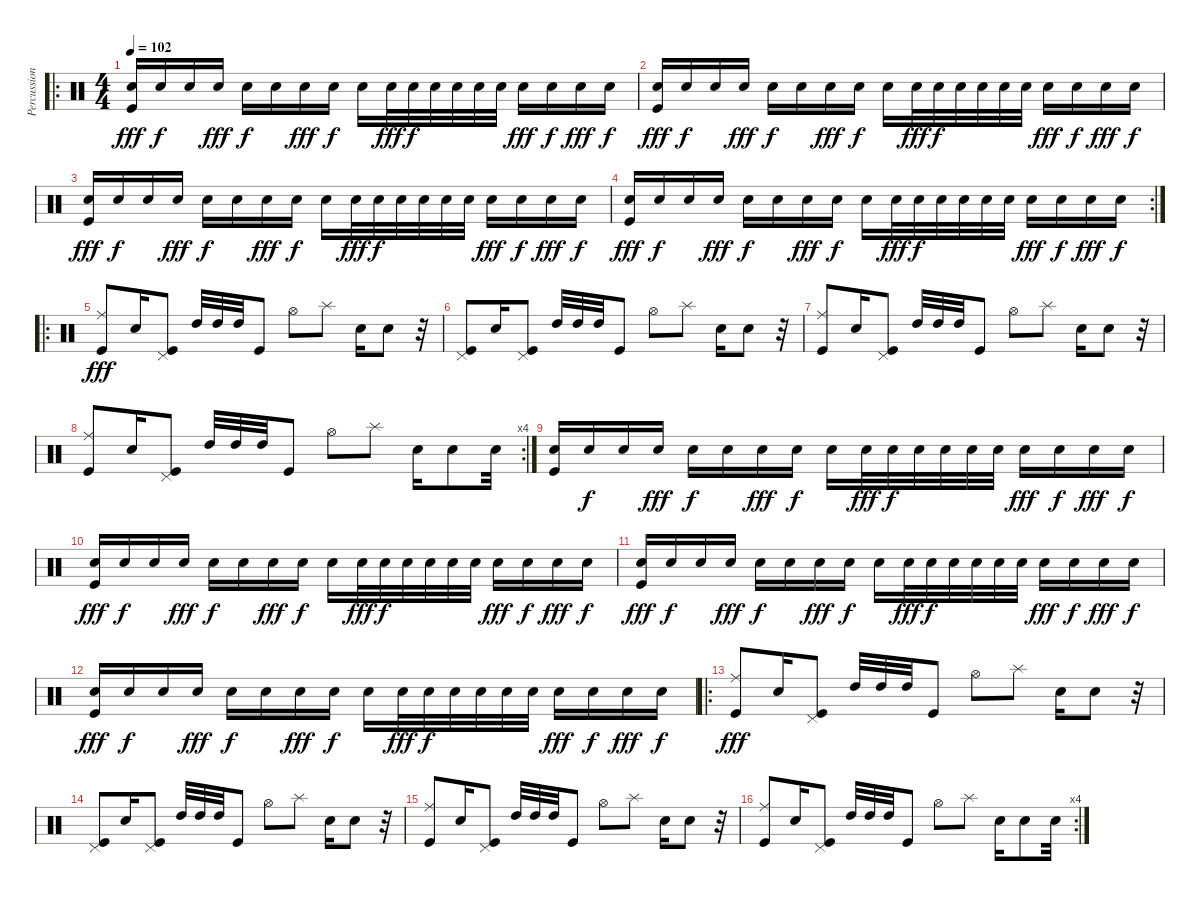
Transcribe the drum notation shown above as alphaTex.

\track ("Percussion" "Percussion") {instrument percussion}
\staff {score}
\articulation defaults
\ro
\ts (4 4)
\tempo 102
\clef neutral
\ks c
("Snare (hit) 2" "Kick (hit)").16{dy fff} "Snare (hit) 2".16{dy f} "Snare (hit) 2".16 "Snare (hit) 2".16{dy fff} "Snare (hit) 2".16{dy f} "Snare (hit) 2".16 "Snare (hit) 2".16{dy fff} "Snare (hit) 2".16{dy f} "Snare (hit) 2".16 "Snare (hit) 2".32{dy fff} "Snare (hit) 2".32{dy f} "Snare (hit) 2".32 "Snare (hit) 2".32 "Snare (hit) 2".32 "Snare (hit) 2".32 "Snare (hit) 2".16{dy fff} "Snare (hit) 2".16{dy f} "Snare (hit) 2".16{dy fff} "Snare (hit) 2".16{dy f} |
("Snare (hit) 2" "Kick (hit)").16{dy fff} "Snare (hit) 2".16{dy f} "Snare (hit) 2".16 "Snare (hit) 2".16{dy fff} "Snare (hit) 2".16{dy f} "Snare (hit) 2".16 "Snare (hit) 2".16{dy fff} "Snare (hit) 2".16{dy f} "Snare (hit) 2".16 "Snare (hit) 2".32{dy fff} "Snare (hit) 2".32{dy f} "Snare (hit) 2".32 "Snare (hit) 2".32 "Snare (hit) 2".32 "Snare (hit) 2".32 "Snare (hit) 2".16{dy fff} "Snare (hit) 2".16{dy f} "Snare (hit) 2".16{dy fff} "Snare (hit) 2".16{dy f} |
("Snare (hit) 2" "Kick (hit)").16{dy fff} "Snare (hit) 2".16{dy f} "Snare (hit) 2".16 "Snare (hit) 2".16{dy fff} "Snare (hit) 2".16{dy f} "Snare (hit) 2".16 "Snare (hit) 2".16{dy fff} "Snare (hit) 2".16{dy f} "Snare (hit) 2".16 "Snare (hit) 2".32{dy fff} "Snare (hit) 2".32{dy f} "Snare (hit) 2".32 "Snare (hit) 2".32 "Snare (hit) 2".32 "Snare (hit) 2".32 "Snare (hit) 2".16{dy fff} "Snare (hit) 2".16{dy f} "Snare (hit) 2".16{dy fff} "Snare (hit) 2".16{dy f} |
\rc 2
("Snare (hit) 2" "Kick (hit)").16{dy fff} "Snare (hit) 2".16{dy f} "Snare (hit) 2".16 "Snare (hit) 2".16{dy fff} "Snare (hit) 2".16{dy f} "Snare (hit) 2".16 "Snare (hit) 2".16{dy fff} "Snare (hit) 2".16{dy f} "Snare (hit) 2".16 "Snare (hit) 2".32{dy fff} "Snare (hit) 2".32{dy f} "Snare (hit) 2".32 "Snare (hit) 2".32 "Snare (hit) 2".32 "Snare (hit) 2".32 "Snare (hit) 2".16{dy fff} "Snare (hit) 2".16{dy f} "Snare (hit) 2".16{dy fff} "Snare (hit) 2".16{dy f} |
\ro
("Ride (middle)" "Kick (hit)").8{dy fff} "Snare (hit) 2".16 ("Pedal Hi-Hat (hit)" "Kick (hit)").8 "High Tom (hit)".32 "High Tom (hit)".32 "High Tom (hit)".32 "Kick (hit)".8 "Hi-Hat (open)".8 "Splash (hit)".8 "Snare (hit) 2".16 "Snare (hit) 2".8 r.32 |
("Pedal Hi-Hat (hit)" "Kick (hit)").8 "Snare (hit) 2".16 ("Pedal Hi-Hat (hit)" "Kick (hit)").8 "High Tom (hit)".32 "High Tom (hit)".32 "High Tom (hit)".32 "Kick (hit)".8 "Hi-Hat (open)".8 "Splash (hit)".8 "Snare (hit) 2".16 "Snare (hit) 2".8 r.32 |
("Ride (middle)" "Kick (hit)").8 "Snare (hit) 2".16 ("Pedal Hi-Hat (hit)" "Kick (hit)").8 "High Tom (hit)".32 "High Tom (hit)".32 "High Tom (hit)".32 "Kick (hit)".8 "Hi-Hat (open)".8 "Splash (hit)".8 "Snare (hit) 2".16 "Snare (hit) 2".8 r.32 |
\rc 4
("Ride (middle)" "Kick (hit)").8 "Snare (hit) 2".16 ("Pedal Hi-Hat (hit)" "Kick (hit)").8 "High Tom (hit)".32 "High Tom (hit)".32 "High Tom (hit)".32 "Kick (hit)".8 "Hi-Hat (open)".8 "Splash (hit)".8 "Snare (hit) 2".16 "Snare (hit) 2".8 "Snare (hit) 2".32 |
("Snare (hit) 2" "Kick (hit)").16 "Snare (hit) 2".16{dy f} "Snare (hit) 2".16 "Snare (hit) 2".16{dy fff} "Snare (hit) 2".16{dy f} "Snare (hit) 2".16 "Snare (hit) 2".16{dy fff} "Snare (hit) 2".16{dy f} "Snare (hit) 2".16 "Snare (hit) 2".32{dy fff} "Snare (hit) 2".32{dy f} "Snare (hit) 2".32 "Snare (hit) 2".32 "Snare (hit) 2".32 "Snare (hit) 2".32 "Snare (hit) 2".16{dy fff} "Snare (hit) 2".16{dy f} "Snare (hit) 2".16{dy fff} "Snare (hit) 2".16{dy f} |
("Snare (hit) 2" "Kick (hit)").16{dy fff} "Snare (hit) 2".16{dy f} "Snare (hit) 2".16 "Snare (hit) 2".16{dy fff} "Snare (hit) 2".16{dy f} "Snare (hit) 2".16 "Snare (hit) 2".16{dy fff} "Snare (hit) 2".16{dy f} "Snare (hit) 2".16 "Snare (hit) 2".32{dy fff} "Snare (hit) 2".32{dy f} "Snare (hit) 2".32 "Snare (hit) 2".32 "Snare (hit) 2".32 "Snare (hit) 2".32 "Snare (hit) 2".16{dy fff} "Snare (hit) 2".16{dy f} "Snare (hit) 2".16{dy fff} "Snare (hit) 2".16{dy f} |
("Snare (hit) 2" "Kick (hit)").16{dy fff} "Snare (hit) 2".16{dy f} "Snare (hit) 2".16 "Snare (hit) 2".16{dy fff} "Snare (hit) 2".16{dy f} "Snare (hit) 2".16 "Snare (hit) 2".16{dy fff} "Snare (hit) 2".16{dy f} "Snare (hit) 2".16 "Snare (hit) 2".32{dy fff} "Snare (hit) 2".32{dy f} "Snare (hit) 2".32 "Snare (hit) 2".32 "Snare (hit) 2".32 "Snare (hit) 2".32 "Snare (hit) 2".16{dy fff} "Snare (hit) 2".16{dy f} "Snare (hit) 2".16{dy fff} "Snare (hit) 2".16{dy f} |
("Snare (hit) 2" "Kick (hit)").16{dy fff} "Snare (hit) 2".16{dy f} "Snare (hit) 2".16 "Snare (hit) 2".16{dy fff} "Snare (hit) 2".16{dy f} "Snare (hit) 2".16 "Snare (hit) 2".16{dy fff} "Snare (hit) 2".16{dy f} "Snare (hit) 2".16 "Snare (hit) 2".32{dy fff} "Snare (hit) 2".32{dy f} "Snare (hit) 2".32 "Snare (hit) 2".32 "Snare (hit) 2".32 "Snare (hit) 2".32 "Snare (hit) 2".16{dy fff} "Snare (hit) 2".16{dy f} "Snare (hit) 2".16{dy fff} "Snare (hit) 2".16{dy f} |
\ro
("Ride (middle)" "Kick (hit)").8{dy fff} "Snare (hit) 2".16 ("Pedal Hi-Hat (hit)" "Kick (hit)").8 "High Tom (hit)".32 "High Tom (hit)".32 "High Tom (hit)".32 "Kick (hit)".8 "Hi-Hat (open)".8 "Splash (hit)".8 "Snare (hit) 2".16 "Snare (hit) 2".8 r.32 |
("Pedal Hi-Hat (hit)" "Kick (hit)").8 "Snare (hit) 2".16 ("Pedal Hi-Hat (hit)" "Kick (hit)").8 "High Tom (hit)".32 "High Tom (hit)".32 "High Tom (hit)".32 "Kick (hit)".8 "Hi-Hat (open)".8 "Splash (hit)".8 "Snare (hit) 2".16 "Snare (hit) 2".8 r.32 |
("Ride (middle)" "Kick (hit)").8 "Snare (hit) 2".16 ("Pedal Hi-Hat (hit)" "Kick (hit)").8 "High Tom (hit)".32 "High Tom (hit)".32 "High Tom (hit)".32 "Kick (hit)".8 "Hi-Hat (open)".8 "Splash (hit)".8 "Snare (hit) 2".16 "Snare (hit) 2".8 r.32 |
\rc 4
("Ride (middle)" "Kick (hit)").8 "Snare (hit) 2".16 ("Pedal Hi-Hat (hit)" "Kick (hit)").8 "High Tom (hit)".32 "High Tom (hit)".32 "High Tom (hit)".32 "Kick (hit)".8 "Hi-Hat (open)".8 "Splash (hit)".8 "Snare (hit) 2".16 "Snare (hit) 2".8 "Snare (hit) 2".32
